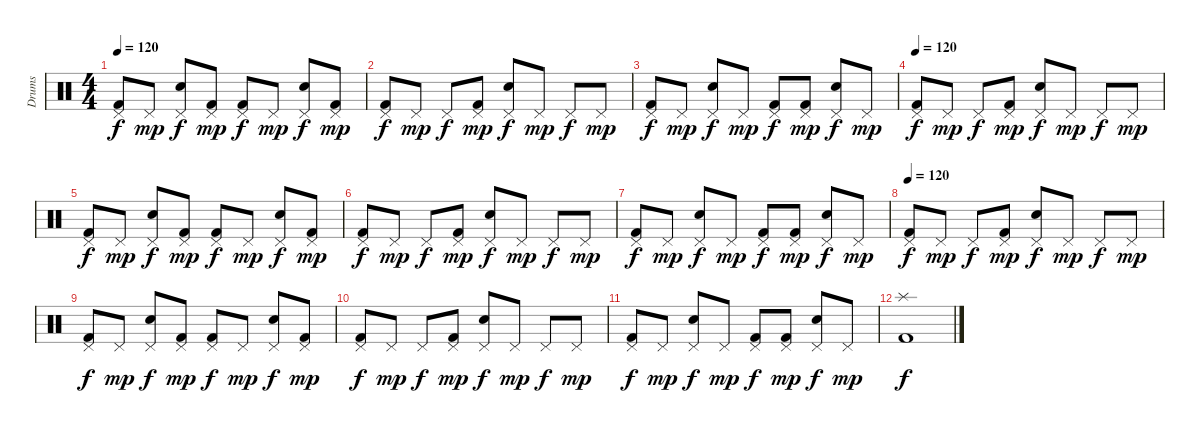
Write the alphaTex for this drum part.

\track ("Drums" "Drums") {instrument percussion}
\staff {score}
\articulation defaults
\ts (4 4)
\tempo 120
\clef neutral
\ks c
("Pedal Hi-Hat (hit)" "Kick (hit) 2").8{dy f} "Pedal Hi-Hat (hit)".8{dy mp} ("Pedal Hi-Hat (hit)" "Electric Snare (hit)").8{dy f} ("Pedal Hi-Hat (hit)" "Kick (hit) 2").8{dy mp} ("Pedal Hi-Hat (hit)" "Kick (hit) 2").8{dy f} "Pedal Hi-Hat (hit)".8{dy mp} ("Pedal Hi-Hat (hit)" "Electric Snare (hit)").8{dy f} ("Pedal Hi-Hat (hit)" "Kick (hit) 2").8{dy mp} |
("Pedal Hi-Hat (hit)" "Kick (hit) 2").8{dy f} "Pedal Hi-Hat (hit)".8{dy mp} "Pedal Hi-Hat (hit)".8{dy f} ("Pedal Hi-Hat (hit)" "Kick (hit) 2").8{dy mp} ("Pedal Hi-Hat (hit)" "Electric Snare (hit)").8{dy f} "Pedal Hi-Hat (hit)".8{dy mp} "Pedal Hi-Hat (hit)".8{dy f} "Pedal Hi-Hat (hit)".8{dy mp} |
("Pedal Hi-Hat (hit)" "Kick (hit) 2").8{dy f} "Pedal Hi-Hat (hit)".8{dy mp} ("Pedal Hi-Hat (hit)" "Electric Snare (hit)").8{dy f} "Pedal Hi-Hat (hit)".8{dy mp} ("Pedal Hi-Hat (hit)" "Kick (hit) 2").8{dy f} ("Pedal Hi-Hat (hit)" "Kick (hit) 2").8{dy mp} ("Pedal Hi-Hat (hit)" "Electric Snare (hit)").8{dy f} "Pedal Hi-Hat (hit)".8{dy mp} |
\tempo 120
("Pedal Hi-Hat (hit)" "Kick (hit) 2").8{dy f} "Pedal Hi-Hat (hit)".8{dy mp} "Pedal Hi-Hat (hit)".8{dy f} ("Pedal Hi-Hat (hit)" "Kick (hit) 2").8{dy mp} ("Pedal Hi-Hat (hit)" "Electric Snare (hit)").8{dy f} "Pedal Hi-Hat (hit)".8{dy mp} "Pedal Hi-Hat (hit)".8{dy f} "Pedal Hi-Hat (hit)".8{dy mp} |
("Pedal Hi-Hat (hit)" "Kick (hit) 2").8{dy f} "Pedal Hi-Hat (hit)".8{dy mp} ("Pedal Hi-Hat (hit)" "Electric Snare (hit)").8{dy f} ("Pedal Hi-Hat (hit)" "Kick (hit) 2").8{dy mp} ("Pedal Hi-Hat (hit)" "Kick (hit) 2").8{dy f} "Pedal Hi-Hat (hit)".8{dy mp} ("Pedal Hi-Hat (hit)" "Electric Snare (hit)").8{dy f} ("Pedal Hi-Hat (hit)" "Kick (hit) 2").8{dy mp} |
("Pedal Hi-Hat (hit)" "Kick (hit) 2").8{dy f} "Pedal Hi-Hat (hit)".8{dy mp} "Pedal Hi-Hat (hit)".8{dy f} ("Pedal Hi-Hat (hit)" "Kick (hit) 2").8{dy mp} ("Pedal Hi-Hat (hit)" "Electric Snare (hit)").8{dy f} "Pedal Hi-Hat (hit)".8{dy mp} "Pedal Hi-Hat (hit)".8{dy f} "Pedal Hi-Hat (hit)".8{dy mp} |
("Pedal Hi-Hat (hit)" "Kick (hit) 2").8{dy f} "Pedal Hi-Hat (hit)".8{dy mp} ("Pedal Hi-Hat (hit)" "Electric Snare (hit)").8{dy f} "Pedal Hi-Hat (hit)".8{dy mp} ("Pedal Hi-Hat (hit)" "Kick (hit) 2").8{dy f} ("Pedal Hi-Hat (hit)" "Kick (hit) 2").8{dy mp} ("Pedal Hi-Hat (hit)" "Electric Snare (hit)").8{dy f} "Pedal Hi-Hat (hit)".8{dy mp} |
\tempo 120
("Pedal Hi-Hat (hit)" "Kick (hit) 2").8{dy f} "Pedal Hi-Hat (hit)".8{dy mp} "Pedal Hi-Hat (hit)".8{dy f} ("Pedal Hi-Hat (hit)" "Kick (hit) 2").8{dy mp} ("Pedal Hi-Hat (hit)" "Electric Snare (hit)").8{dy f} "Pedal Hi-Hat (hit)".8{dy mp} "Pedal Hi-Hat (hit)".8{dy f} "Pedal Hi-Hat (hit)".8{dy mp} |
("Pedal Hi-Hat (hit)" "Kick (hit) 2").8{dy f} "Pedal Hi-Hat (hit)".8{dy mp} ("Pedal Hi-Hat (hit)" "Electric Snare (hit)").8{dy f} ("Pedal Hi-Hat (hit)" "Kick (hit) 2").8{dy mp} ("Pedal Hi-Hat (hit)" "Kick (hit) 2").8{dy f} "Pedal Hi-Hat (hit)".8{dy mp} ("Pedal Hi-Hat (hit)" "Electric Snare (hit)").8{dy f} ("Pedal Hi-Hat (hit)" "Kick (hit) 2").8{dy mp} |
("Pedal Hi-Hat (hit)" "Kick (hit) 2").8{dy f} "Pedal Hi-Hat (hit)".8{dy mp} "Pedal Hi-Hat (hit)".8{dy f} ("Pedal Hi-Hat (hit)" "Kick (hit) 2").8{dy mp} ("Pedal Hi-Hat (hit)" "Electric Snare (hit)").8{dy f} "Pedal Hi-Hat (hit)".8{dy mp} "Pedal Hi-Hat (hit)".8{dy f} "Pedal Hi-Hat (hit)".8{dy mp} |
("Pedal Hi-Hat (hit)" "Kick (hit) 2").8{dy f} "Pedal Hi-Hat (hit)".8{dy mp} ("Pedal Hi-Hat (hit)" "Electric Snare (hit)").8{dy f} "Pedal Hi-Hat (hit)".8{dy mp} ("Pedal Hi-Hat (hit)" "Kick (hit) 2").8{dy f} ("Pedal Hi-Hat (hit)" "Kick (hit) 2").8{dy mp} ("Pedal Hi-Hat (hit)" "Electric Snare (hit)").8{dy f} "Pedal Hi-Hat (hit)".8{dy mp} |
("Splash (hit)" "Kick (hit) 2").1{dy f}
